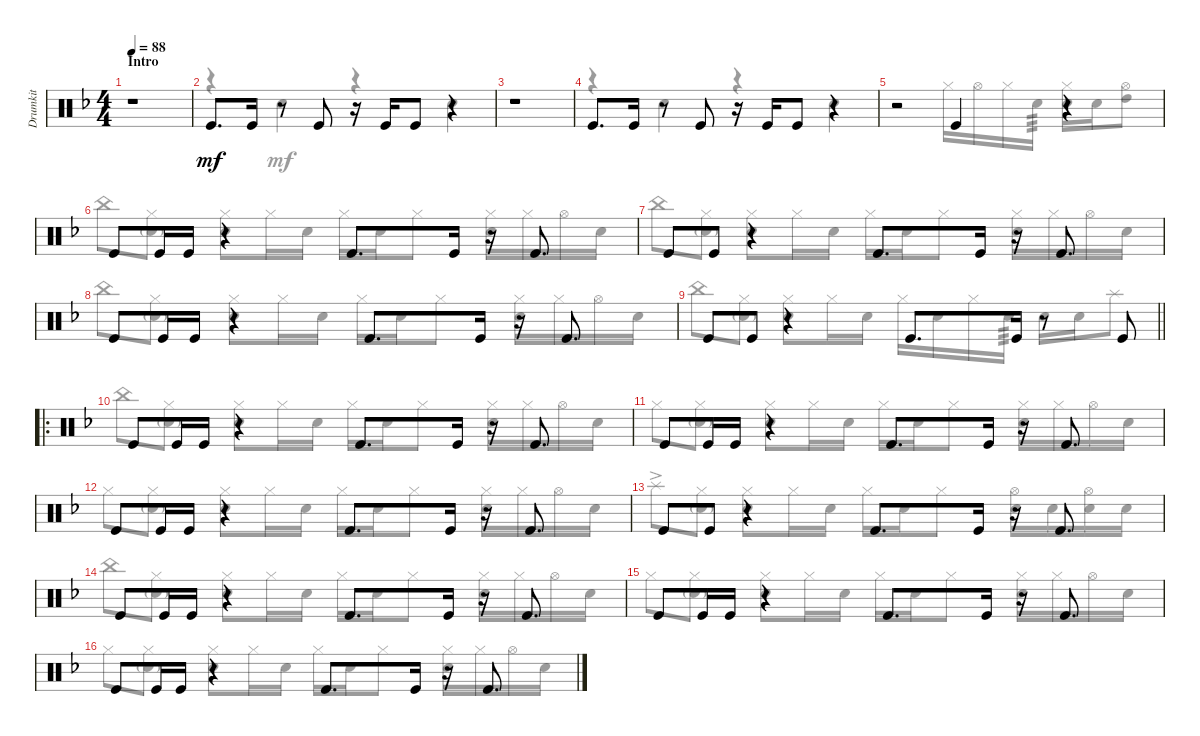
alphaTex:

\track ("Drumkit" "Drumkit") {instrument percussion}
\staff {score}
\articulation defaults
\voice
\ts (4 4)
\section ("" "Intro")
\tempo 88
\clef neutral
\ks dminor
r.1{dy mf} |
"Kick (hit)".8{d} "Kick (hit)".16 r.8 "Kick (hit)".8 r.16 "Kick (hit)".16 "Kick (hit)".8 r.4 |
r.1 |
"Kick (hit)".8{d} "Kick (hit)".16 r.8 "Kick (hit)".8 r.16 "Kick (hit)".16 "Kick (hit)".8 r.4 |
r.2 "Kick (hit)".4 r.4 |
"Kick (hit)".8 "Kick (hit)".16 "Kick (hit)".16 r.4 "Kick (hit)".8{d} "Kick (hit)".16 r.16 "Kick (hit)".8{d} |
"Kick (hit)".8 "Kick (hit)".8 r.4 "Kick (hit)".8{d} "Kick (hit)".16 r.16 "Kick (hit)".8{d} |
"Kick (hit)".8 "Kick (hit)".16 "Kick (hit)".16 r.4 "Kick (hit)".8{d} "Kick (hit)".16 r.16 "Kick (hit)".8{d} |
\barLineRight lightlight "Kick (hit)".8 "Kick (hit)".8
r.4 "Kick (hit)".8{d} "Kick (hit)".16 r.8 "Kick (hit)".8 |
\ro
\section ("" "")
"Kick (hit)".8 "Kick (hit)".16 "Kick (hit)".16 r.4 "Kick (hit)".8{d} "Kick (hit)".16 r.16 "Kick (hit)".8{d} |
"Kick (hit)".8 "Kick (hit)".16 "Kick (hit)".16 r.4 "Kick (hit)".8{d} "Kick (hit)".16 r.16 "Kick (hit)".8{d} |
"Kick (hit)".8 "Kick (hit)".16 "Kick (hit)".16 r.4 "Kick (hit)".8{d} "Kick (hit)".16 r.16 "Kick (hit)".8{d} |
"Kick (hit)".8 "Kick (hit)".8 r.4 "Kick (hit)".8{d} "Kick (hit)".16 r.16 "Kick (hit)".8{d} |
"Kick (hit)".8 "Kick (hit)".16 "Kick (hit)".16 r.4 "Kick (hit)".8{d} "Kick (hit)".16 r.16 "Kick (hit)".8{d} |
"Kick (hit)".8 "Kick (hit)".16 "Kick (hit)".16 r.4 "Kick (hit)".8{d} "Kick (hit)".16 r.16 "Kick (hit)".8{d} |
"Kick (hit)".8 "Kick (hit)".16 "Kick (hit)".16 r.4 "Kick (hit)".8{d} "Kick (hit)".16 r.16 "Kick (hit)".8{d}
\voice
\clef neutral
\ottava regular
\simile none
\ks dminor
|
r.4 "Snare (hit) 2".4 r.4 "Snare (hit) 2".4 |
|
r.4 "Snare (hit) 2".4 r.4 "Snare (hit) 2".4 |
r.2 "Hi-Hat (closed)".16 "Hi-Hat (open)".16 "Hi-Hat (closed)".16 "Snare (hit) 2".16{tp 3} ("Snare (hit) 2" "Hi-Hat (closed)").16 "Snare (hit) 2".16 ("Hi-Hat (open)" "High Tom (hit)").8 |
"China (hit)".8 ("Hi-Hat (closed)" "Snare (hit) 2"{g}).8 ("Hi-Hat (closed)" "Snare (hit) 2").8 "Hi-Hat (closed)".16 "Snare (hit) 2".16 "Hi-Hat (closed)".16 "Snare (hit) 2".16 "Hi-Hat (closed)".8 ("Hi-Hat (closed)" "Snare (hit) 2").16 "Hi-Hat (closed)".16 "Hi-Hat (open)".16 "Snare (hit) 2".16 |
"China (hit)".8 ("Hi-Hat (closed)" "Snare (hit) 2"{g}).8 ("Hi-Hat (closed)" "Snare (hit) 2").8 "Hi-Hat (closed)".16 "Snare (hit) 2".16 "Hi-Hat (closed)".16 "Snare (hit) 2".16 "Hi-Hat (closed)".8 ("Hi-Hat (closed)" "Snare (hit) 2").16 "Hi-Hat (closed)".16 "Hi-Hat (open)".16 "Snare (hit) 2".16 |
"China (hit)".8 ("Hi-Hat (closed)" "Snare (hit) 2"{g}).8 ("Hi-Hat (closed)" "Snare (hit) 2").8 "Hi-Hat (closed)".16 "Snare (hit) 2".16 "Hi-Hat (closed)".16 "Snare (hit) 2".16 "Hi-Hat (closed)".8 ("Hi-Hat (closed)" "Snare (hit) 2").16 "Hi-Hat (closed)".16 "Hi-Hat (open)".16 "Snare (hit) 2".16 |
\barLineRight lightlight "China (hit)".8
("Hi-Hat (closed)" "Snare (hit) 2"{g}).8 ("Hi-Hat (closed)" "Snare (hit) 2").8 "Hi-Hat (closed)".16 "Snare (hit) 2".16 "Hi-Hat (closed)".16 "Snare (hit) 2".16 "Hi-Hat (closed)".16 "Snare (hit) 2".16{tp 3} "Snare (hit) 2".16 "Snare (hit) 2".16 "Splash (hit)".8 |
"China (hit)".8 ("Hi-Hat (closed)" "Snare (hit) 2"{g}).8 ("Hi-Hat (closed)" "Snare (hit) 2").8 "Hi-Hat (closed)".16 "Snare (hit) 2".16 "Hi-Hat (closed)".16 "Snare (hit) 2".16 "Hi-Hat (closed)".8 ("Hi-Hat (closed)" "Snare (hit) 2").16 "Hi-Hat (closed)".16 "Hi-Hat (open)".16 "Snare (hit) 2".16 |
"Hi-Hat (closed)".8 ("Hi-Hat (closed)" "Snare (hit) 2"{g}).8 ("Hi-Hat (closed)" "Snare (hit) 2").8 "Hi-Hat (closed)".16 "Snare (hit) 2".16 "Hi-Hat (closed)".16 "Snare (hit) 2".16 "Hi-Hat (closed)".8 ("Hi-Hat (closed)" "Snare (hit) 2").16 "Hi-Hat (closed)".16 "Hi-Hat (open)".16 "Snare (hit) 2".16 |
"Hi-Hat (closed)".8 ("Hi-Hat (closed)" "Snare (hit) 2"{g}).8 ("Hi-Hat (closed)" "Snare (hit) 2").8 "Hi-Hat (closed)".16 "Snare (hit) 2".16 "Hi-Hat (closed)".16 "Snare (hit) 2".16 "Hi-Hat (closed)".8 ("Hi-Hat (closed)" "Snare (hit) 2").16 "Hi-Hat (closed)".16 "Hi-Hat (open)".16 "Snare (hit) 2".16 |
"Splash (hit)"{ac}.8 ("Hi-Hat (closed)" "Snare (hit) 2"{g}).8 ("Hi-Hat (closed)" "Snare (hit) 2").8 "Hi-Hat (closed)".16 "Snare (hit) 2".16 "Hi-Hat (closed)".16 "Snare (hit) 2".16 "Hi-Hat (closed)".8 ("Hi-Hat (open)" "Snare (hit) 2").16 "Snare (hit) 2".16 ("Snare (hit) 2" "Hi-Hat (open)").16 "Snare (hit) 2".16 |
"China (hit)".8 ("Hi-Hat (closed)" "Snare (hit) 2"{g}).8 ("Hi-Hat (closed)" "Snare (hit) 2").8 "Hi-Hat (closed)".16 "Snare (hit) 2".16 "Hi-Hat (closed)".16 "Snare (hit) 2".16 "Hi-Hat (closed)".8 ("Hi-Hat (closed)" "Snare (hit) 2").16 "Hi-Hat (closed)".16 "Hi-Hat (open)".16 "Snare (hit) 2".16 |
"Hi-Hat (closed)".8 ("Hi-Hat (closed)" "Snare (hit) 2"{g}).8 ("Hi-Hat (closed)" "Snare (hit) 2").8 "Hi-Hat (closed)".16 "Snare (hit) 2".16 "Hi-Hat (closed)".16 "Snare (hit) 2".16 "Hi-Hat (closed)".8 ("Hi-Hat (closed)" "Snare (hit) 2").16 "Hi-Hat (closed)".16 "Hi-Hat (open)".16 "Snare (hit) 2".16 |
"Hi-Hat (closed)".8 ("Hi-Hat (closed)" "Snare (hit) 2"{g}).8 ("Hi-Hat (closed)" "Snare (hit) 2").8 "Hi-Hat (closed)".16 "Snare (hit) 2".16 "Hi-Hat (closed)".16 "Snare (hit) 2".16 "Hi-Hat (closed)".8 ("Hi-Hat (closed)" "Snare (hit) 2").16 "Hi-Hat (closed)".16 "Hi-Hat (open)".16 "Snare (hit) 2".16
